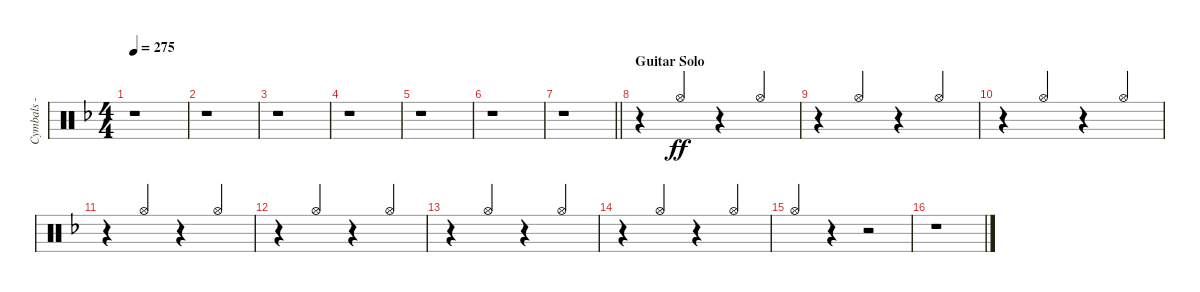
\track ("Cymbals - hi-hat" "Cymbals - ") {instrument percussion}
\staff {score}
\articulation defaults
\ts (4 4)
\tempo 275
\clef neutral
\ks dminor
r.1{dy ff} |
r.1 |
r.1 |
r.1 |
r.1 |
r.1 |
\barLineRight lightlight
r.1 |
\section ("" "Guitar Solo")
r.4 "Hi-Hat (open)".4{beam Up} r.4 "Hi-Hat (open)".4{beam Up} |
r.4 "Hi-Hat (open)".4{beam Up} r.4 "Hi-Hat (open)".4{beam Up} |
r.4 "Hi-Hat (open)".4{beam Up} r.4 "Hi-Hat (open)".4{beam Up} |
r.4 "Hi-Hat (open)".4{beam Up} r.4 "Hi-Hat (open)".4{beam Up} |
r.4 "Hi-Hat (open)".4{beam Up} r.4 "Hi-Hat (open)".4{beam Up} |
r.4 "Hi-Hat (open)".4{beam Up} r.4 "Hi-Hat (open)".4{beam Up} |
r.4 "Hi-Hat (open)".4{beam Up} r.4 "Hi-Hat (open)".4{beam Up} |
"Hi-Hat (open)".4{beam Up} r.4 r.2 |
r.1
